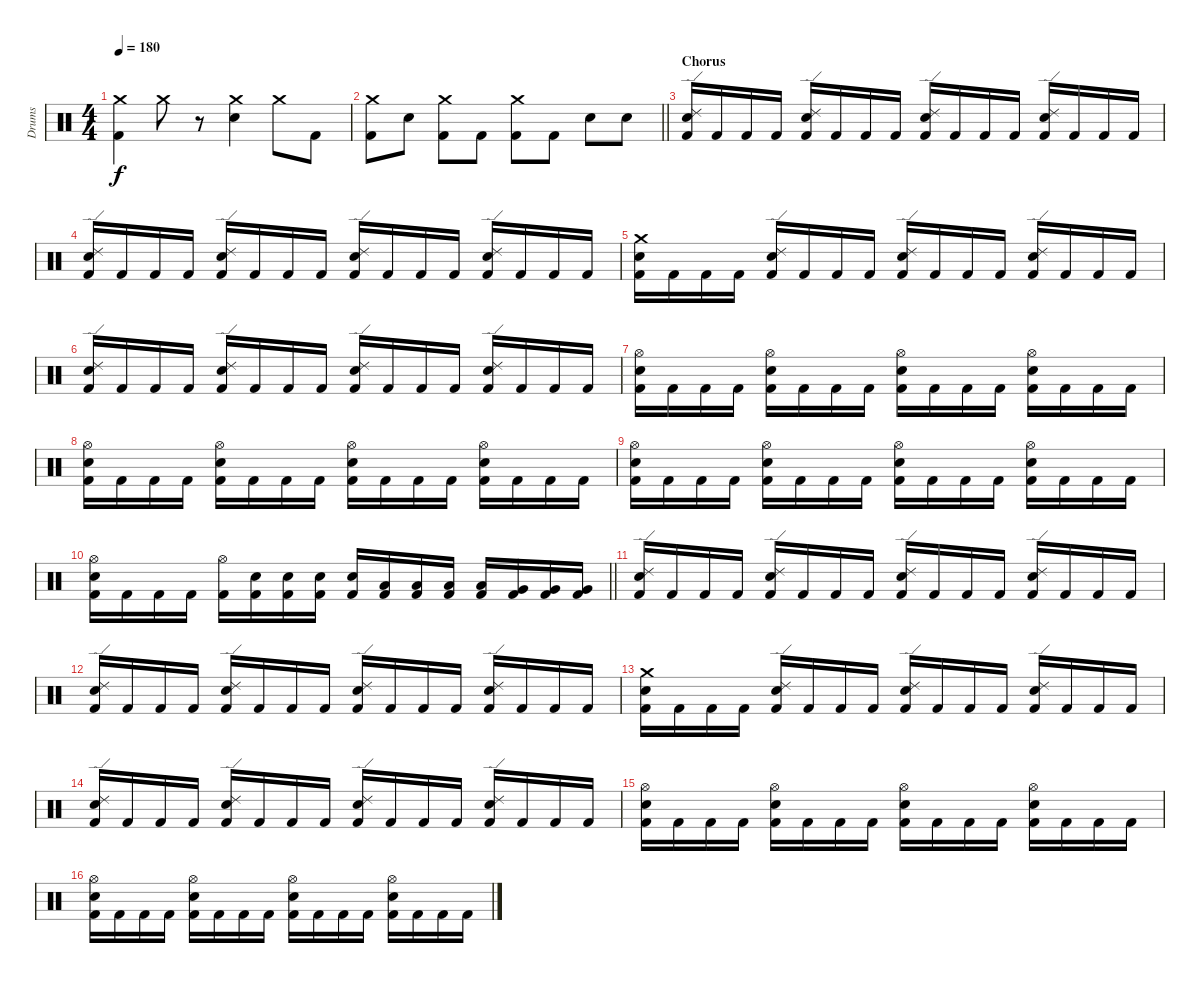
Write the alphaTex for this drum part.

\track ("Drums" "Drums") {instrument percussion}
\staff {score}
\articulation defaults
\ts (4 4)
\tempo 180
\clef neutral
\ks c
("Crash medium (hit)" "Kick (hit) 2").4{dy f} "Crash medium (hit)".8 r.8 ("Crash medium (hit)" "Snare (hit) 2").4 "Crash medium (hit)".8 "Kick (hit) 2".8 |
\barLineRight lightlight
("Crash medium (hit)" "Kick (hit) 2").8 "Snare (hit) 2".8 ("Crash medium (hit)" "Kick (hit) 2").8 "Kick (hit) 2".8 ("Crash medium (hit)" "Kick (hit) 2").8 "Kick (hit) 2".8 "Snare (hit) 2".8 "Snare (hit) 2".8 |
\section ("" "Chorus")
("Ride (edge) 2" "Snare (hit) 2" "Kick (hit) 2").16 "Kick (hit) 2".16 "Kick (hit) 2".16 "Kick (hit) 2".16 ("Ride (edge) 2" "Snare (hit) 2" "Kick (hit) 2").16 "Kick (hit) 2".16 "Kick (hit) 2".16 "Kick (hit) 2".16 ("Ride (edge) 2" "Snare (hit) 2" "Kick (hit) 2").16 "Kick (hit) 2".16 "Kick (hit) 2".16 "Kick (hit) 2".16 ("Ride (edge) 2" "Snare (hit) 2" "Kick (hit) 2").16 "Kick (hit) 2".16 "Kick (hit) 2".16 "Kick (hit) 2".16 |
("Ride (edge) 2" "Snare (hit) 2" "Kick (hit) 2").16 "Kick (hit) 2".16 "Kick (hit) 2".16 "Kick (hit) 2".16 ("Ride (edge) 2" "Snare (hit) 2" "Kick (hit) 2").16 "Kick (hit) 2".16 "Kick (hit) 2".16 "Kick (hit) 2".16 ("Ride (edge) 2" "Snare (hit) 2" "Kick (hit) 2").16 "Kick (hit) 2".16 "Kick (hit) 2".16 "Kick (hit) 2".16 ("Ride (edge) 2" "Snare (hit) 2" "Kick (hit) 2").16 "Kick (hit) 2".16 "Kick (hit) 2".16 "Kick (hit) 2".16 |
("Crash medium (hit)" "Snare (hit) 2" "Kick (hit) 2").16 "Kick (hit) 2".16 "Kick (hit) 2".16 "Kick (hit) 2".16 ("Ride (edge) 2" "Snare (hit) 2" "Kick (hit) 2").16 "Kick (hit) 2".16 "Kick (hit) 2".16 "Kick (hit) 2".16 ("Ride (edge) 2" "Snare (hit) 2" "Kick (hit) 2").16 "Kick (hit) 2".16 "Kick (hit) 2".16 "Kick (hit) 2".16 ("Ride (edge) 2" "Snare (hit) 2" "Kick (hit) 2").16 "Kick (hit) 2".16 "Kick (hit) 2".16 "Kick (hit) 2".16 |
("Ride (edge) 2" "Snare (hit) 2" "Kick (hit) 2").16 "Kick (hit) 2".16 "Kick (hit) 2".16 "Kick (hit) 2".16 ("Ride (edge) 2" "Snare (hit) 2" "Kick (hit) 2").16 "Kick (hit) 2".16 "Kick (hit) 2".16 "Kick (hit) 2".16 ("Ride (edge) 2" "Snare (hit) 2" "Kick (hit) 2").16 "Kick (hit) 2".16 "Kick (hit) 2".16 "Kick (hit) 2".16 ("Ride (edge) 2" "Snare (hit) 2" "Kick (hit) 2").16 "Kick (hit) 2".16 "Kick (hit) 2".16 "Kick (hit) 2".16 |
("Hi-Hat (open)" "Snare (hit) 2" "Kick (hit) 2").16 "Kick (hit) 2".16 "Kick (hit) 2".16 "Kick (hit) 2".16 ("Hi-Hat (open)" "Snare (hit) 2" "Kick (hit) 2").16 "Kick (hit) 2".16 "Kick (hit) 2".16 "Kick (hit) 2".16 ("Hi-Hat (open)" "Snare (hit) 2" "Kick (hit) 2").16 "Kick (hit) 2".16 "Kick (hit) 2".16 "Kick (hit) 2".16 ("Hi-Hat (open)" "Snare (hit) 2" "Kick (hit) 2").16 "Kick (hit) 2".16 "Kick (hit) 2".16 "Kick (hit) 2".16 |
("Hi-Hat (open)" "Snare (hit) 2" "Kick (hit) 2").16 "Kick (hit) 2".16 "Kick (hit) 2".16 "Kick (hit) 2".16 ("Hi-Hat (open)" "Snare (hit) 2" "Kick (hit) 2").16 "Kick (hit) 2".16 "Kick (hit) 2".16 "Kick (hit) 2".16 ("Hi-Hat (open)" "Snare (hit) 2" "Kick (hit) 2").16 "Kick (hit) 2".16 "Kick (hit) 2".16 "Kick (hit) 2".16 ("Hi-Hat (open)" "Snare (hit) 2" "Kick (hit) 2").16 "Kick (hit) 2".16 "Kick (hit) 2".16 "Kick (hit) 2".16 |
("Hi-Hat (open)" "Snare (hit) 2" "Kick (hit) 2").16 "Kick (hit) 2".16 "Kick (hit) 2".16 "Kick (hit) 2".16 ("Hi-Hat (open)" "Snare (hit) 2" "Kick (hit) 2").16 "Kick (hit) 2".16 "Kick (hit) 2".16 "Kick (hit) 2".16 ("Hi-Hat (open)" "Snare (hit) 2" "Kick (hit) 2").16 "Kick (hit) 2".16 "Kick (hit) 2".16 "Kick (hit) 2".16 ("Hi-Hat (open)" "Snare (hit) 2" "Kick (hit) 2").16 "Kick (hit) 2".16 "Kick (hit) 2".16 "Kick (hit) 2".16 |
\barLineRight lightlight
("Hi-Hat (open)" "Snare (hit) 2" "Kick (hit) 2").16 "Kick (hit) 2".16 "Kick (hit) 2".16 "Kick (hit) 2".16 ("Hi-Hat (open)" "Kick (hit) 2").16 ("Snare (hit) 2" "Kick (hit) 2").16 ("Snare (hit) 2" "Kick (hit) 2").16 ("Snare (hit) 2" "Kick (hit) 2").16 ("Snare (hit) 2" "Kick (hit) 2").16 ("Low Tom (hit)" "Kick (hit) 2").16 ("Low Tom (hit)" "Kick (hit) 2").16 ("Low Tom (hit)" "Kick (hit) 2").16 ("Low Tom (hit)" "Kick (hit) 2").16 ("Very Low Tom (hit)" "Kick (hit) 2").16 ("Very Low Tom (hit)" "Kick (hit) 2").16 ("Very Low Tom (hit)" "Kick (hit) 2").16 |
("Ride (edge) 2" "Snare (hit) 2" "Kick (hit) 2").16 "Kick (hit) 2".16 "Kick (hit) 2".16 "Kick (hit) 2".16 ("Ride (edge) 2" "Snare (hit) 2" "Kick (hit) 2").16 "Kick (hit) 2".16 "Kick (hit) 2".16 "Kick (hit) 2".16 ("Ride (edge) 2" "Snare (hit) 2" "Kick (hit) 2").16 "Kick (hit) 2".16 "Kick (hit) 2".16 "Kick (hit) 2".16 ("Ride (edge) 2" "Snare (hit) 2" "Kick (hit) 2").16 "Kick (hit) 2".16 "Kick (hit) 2".16 "Kick (hit) 2".16 |
("Ride (edge) 2" "Snare (hit) 2" "Kick (hit) 2").16 "Kick (hit) 2".16 "Kick (hit) 2".16 "Kick (hit) 2".16 ("Ride (edge) 2" "Snare (hit) 2" "Kick (hit) 2").16 "Kick (hit) 2".16 "Kick (hit) 2".16 "Kick (hit) 2".16 ("Ride (edge) 2" "Snare (hit) 2" "Kick (hit) 2").16 "Kick (hit) 2".16 "Kick (hit) 2".16 "Kick (hit) 2".16 ("Ride (edge) 2" "Snare (hit) 2" "Kick (hit) 2").16 "Kick (hit) 2".16 "Kick (hit) 2".16 "Kick (hit) 2".16 |
("Crash medium (hit)" "Snare (hit) 2" "Kick (hit) 2").16 "Kick (hit) 2".16 "Kick (hit) 2".16 "Kick (hit) 2".16 ("Ride (edge) 2" "Snare (hit) 2" "Kick (hit) 2").16 "Kick (hit) 2".16 "Kick (hit) 2".16 "Kick (hit) 2".16 ("Ride (edge) 2" "Snare (hit) 2" "Kick (hit) 2").16 "Kick (hit) 2".16 "Kick (hit) 2".16 "Kick (hit) 2".16 ("Ride (edge) 2" "Snare (hit) 2" "Kick (hit) 2").16 "Kick (hit) 2".16 "Kick (hit) 2".16 "Kick (hit) 2".16 |
("Ride (edge) 2" "Snare (hit) 2" "Kick (hit) 2").16 "Kick (hit) 2".16 "Kick (hit) 2".16 "Kick (hit) 2".16 ("Ride (edge) 2" "Snare (hit) 2" "Kick (hit) 2").16 "Kick (hit) 2".16 "Kick (hit) 2".16 "Kick (hit) 2".16 ("Ride (edge) 2" "Snare (hit) 2" "Kick (hit) 2").16 "Kick (hit) 2".16 "Kick (hit) 2".16 "Kick (hit) 2".16 ("Ride (edge) 2" "Snare (hit) 2" "Kick (hit) 2").16 "Kick (hit) 2".16 "Kick (hit) 2".16 "Kick (hit) 2".16 |
("Hi-Hat (open)" "Snare (hit) 2" "Kick (hit) 2").16 "Kick (hit) 2".16 "Kick (hit) 2".16 "Kick (hit) 2".16 ("Hi-Hat (open)" "Snare (hit) 2" "Kick (hit) 2").16 "Kick (hit) 2".16 "Kick (hit) 2".16 "Kick (hit) 2".16 ("Hi-Hat (open)" "Snare (hit) 2" "Kick (hit) 2").16 "Kick (hit) 2".16 "Kick (hit) 2".16 "Kick (hit) 2".16 ("Hi-Hat (open)" "Snare (hit) 2" "Kick (hit) 2").16 "Kick (hit) 2".16 "Kick (hit) 2".16 "Kick (hit) 2".16 |
("Hi-Hat (open)" "Snare (hit) 2" "Kick (hit) 2").16 "Kick (hit) 2".16 "Kick (hit) 2".16 "Kick (hit) 2".16 ("Hi-Hat (open)" "Snare (hit) 2" "Kick (hit) 2").16 "Kick (hit) 2".16 "Kick (hit) 2".16 "Kick (hit) 2".16 ("Hi-Hat (open)" "Snare (hit) 2" "Kick (hit) 2").16 "Kick (hit) 2".16 "Kick (hit) 2".16 "Kick (hit) 2".16 ("Hi-Hat (open)" "Snare (hit) 2" "Kick (hit) 2").16 "Kick (hit) 2".16 "Kick (hit) 2".16 "Kick (hit) 2".16
